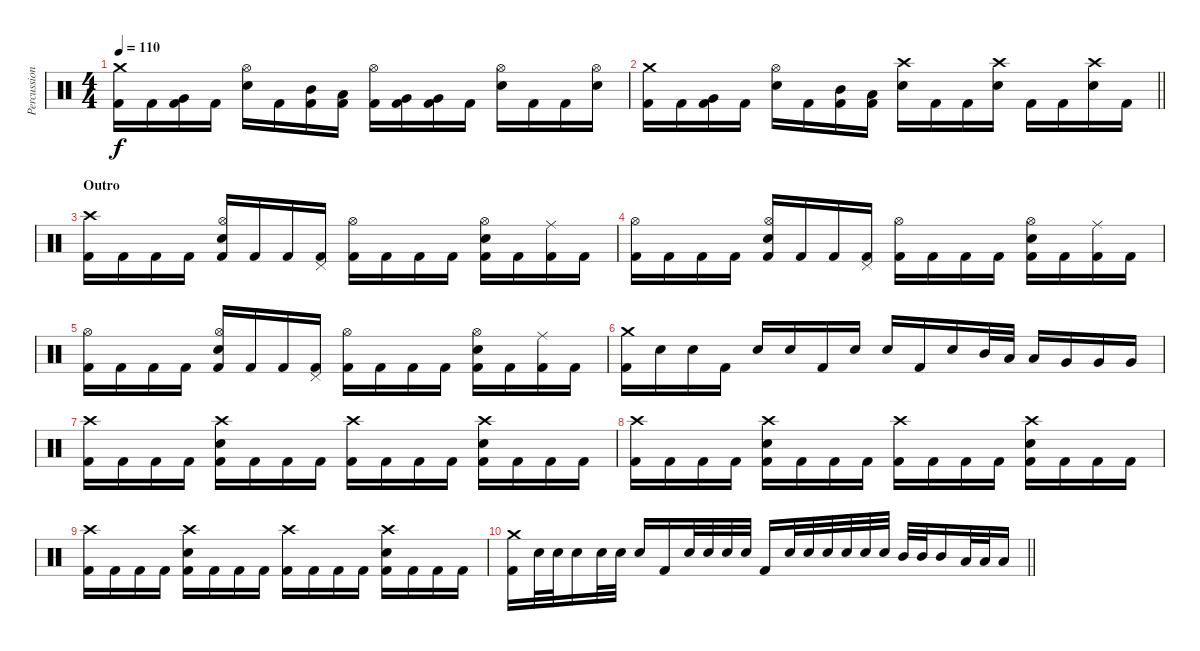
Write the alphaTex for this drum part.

\track ("Percussion" "Percussion") {instrument percussion}
\staff {score}
\articulation defaults
\ts (4 4)
\tempo 110
\clef neutral
\ks c
("Kick (hit) 2" "Crash medium (hit)").16{dy f} "Kick (hit) 2".16 ("Very Low Tom (hit)" "Kick (hit) 2").16 "Kick (hit) 2".16 ("Hi-Hat (open)" "Snare (hit) 2").16 "Kick (hit) 2".16 ("Mid Tom (hit)" "Kick (hit) 2").16 ("Low Tom (hit)" "Kick (hit) 2").16 ("Hi-Hat (open)" "Kick (hit) 2").16 ("Very Low Tom (hit)" "Kick (hit) 2").16 ("Very Low Tom (hit)" "Kick (hit) 2").16 "Kick (hit) 2".16 ("Hi-Hat (open)" "Snare (hit) 2").16 "Kick (hit) 2".16 "Kick (hit) 2".16 ("Hi-Hat (open)" "Snare (hit) 2").16 |
\barLineRight lightlight
("Kick (hit) 2" "Crash medium (hit)").16 "Kick (hit) 2".16 ("Very Low Tom (hit)" "Kick (hit) 2").16 "Kick (hit) 2".16 ("Hi-Hat (open)" "Snare (hit) 2").16 "Kick (hit) 2".16 ("Mid Tom (hit)" "Kick (hit) 2").16 ("Low Tom (hit)" "Kick (hit) 2").16 ("Snare (hit) 2" "Crash high (hit)").16 "Kick (hit) 2".16 "Kick (hit) 2".16 ("Snare (hit) 2" "Crash high (hit)").16 "Kick (hit) 2".16 "Kick (hit) 2".16 ("Snare (hit) 2" "Crash high (hit)").16 "Kick (hit) 2".16 |
\section ("" "Outro")
("Kick (hit) 2" "Crash high (hit)").16 "Kick (hit) 2".16 "Kick (hit) 2".16 "Kick (hit) 2".16 ("Hi-Hat (open)" "Snare (hit) 2" "Kick (hit) 2").16 "Kick (hit) 2".16 "Kick (hit) 2".16 ("Pedal Hi-Hat (hit)" "Kick (hit) 2").16 ("Hi-Hat (open)" "Kick (hit) 2").16 "Kick (hit) 2".16 "Kick (hit) 2".16 "Kick (hit) 2".16 ("Hi-Hat (open)" "Snare (hit) 2" "Kick (hit) 2").16 "Kick (hit) 2".16 ("Ride (middle)" "Kick (hit) 2").16 "Kick (hit) 2".16 |
("Hi-Hat (open)" "Kick (hit) 2").16 "Kick (hit) 2".16 "Kick (hit) 2".16 "Kick (hit) 2".16 ("Hi-Hat (open)" "Snare (hit) 2" "Kick (hit) 2").16 "Kick (hit) 2".16 "Kick (hit) 2".16 ("Pedal Hi-Hat (hit)" "Kick (hit) 2").16 ("Hi-Hat (open)" "Kick (hit) 2").16 "Kick (hit) 2".16 "Kick (hit) 2".16 "Kick (hit) 2".16 ("Hi-Hat (open)" "Snare (hit) 2" "Kick (hit) 2").16 "Kick (hit) 2".16 ("Ride (middle)" "Kick (hit) 2").16 "Kick (hit) 2".16 |
("Hi-Hat (open)" "Kick (hit) 2").16 "Kick (hit) 2".16 "Kick (hit) 2".16 "Kick (hit) 2".16 ("Hi-Hat (open)" "Snare (hit) 2" "Kick (hit) 2").16 "Kick (hit) 2".16 "Kick (hit) 2".16 ("Pedal Hi-Hat (hit)" "Kick (hit) 2").16 ("Hi-Hat (open)" "Kick (hit) 2").16 "Kick (hit) 2".16 "Kick (hit) 2".16 "Kick (hit) 2".16 ("Hi-Hat (open)" "Snare (hit) 2" "Kick (hit) 2").16 "Kick (hit) 2".16 ("Ride (middle)" "Kick (hit) 2").16 "Kick (hit) 2".16 |
("Kick (hit) 2" "Crash medium (hit)").16 "Snare (hit) 2".16 "Snare (hit) 2".16 "Kick (hit) 2".16 "Snare (hit) 2".16 "Snare (hit) 2".16 "Kick (hit) 2".16 "Snare (hit) 2".16 "Snare (hit) 2".16 "Kick (hit) 2".16 "Snare (hit) 2".16 "Mid Tom (hit)".32 "Low Tom (hit)".32 "Low Tom (hit)".16 "Very Low Tom (hit)".16 "Very Low Tom (hit)".16 "Very Low Tom (hit)".16 |
("Kick (hit) 2" "Crash high (hit)").16 "Kick (hit) 2".16 "Kick (hit) 2".16 "Kick (hit) 2".16 ("Snare (hit) 2" "Kick (hit) 2" "Crash high (hit)").16 "Kick (hit) 2".16 "Kick (hit) 2".16 "Kick (hit) 2".16 ("Kick (hit) 2" "Crash high (hit)").16 "Kick (hit) 2".16 "Kick (hit) 2".16 "Kick (hit) 2".16 ("Snare (hit) 2" "Kick (hit) 2" "Crash high (hit)").16 "Kick (hit) 2".16 "Kick (hit) 2".16 "Kick (hit) 2".16 |
("Kick (hit) 2" "Crash high (hit)").16 "Kick (hit) 2".16 "Kick (hit) 2".16 "Kick (hit) 2".16 ("Snare (hit) 2" "Kick (hit) 2" "Crash high (hit)").16 "Kick (hit) 2".16 "Kick (hit) 2".16 "Kick (hit) 2".16 ("Kick (hit) 2" "Crash high (hit)").16 "Kick (hit) 2".16 "Kick (hit) 2".16 "Kick (hit) 2".16 ("Snare (hit) 2" "Kick (hit) 2" "Crash high (hit)").16 "Kick (hit) 2".16 "Kick (hit) 2".16 "Kick (hit) 2".16 |
("Kick (hit) 2" "Crash high (hit)").16 "Kick (hit) 2".16 "Kick (hit) 2".16 "Kick (hit) 2".16 ("Snare (hit) 2" "Kick (hit) 2" "Crash high (hit)").16 "Kick (hit) 2".16 "Kick (hit) 2".16 "Kick (hit) 2".16 ("Kick (hit) 2" "Crash high (hit)").16 "Kick (hit) 2".16 "Kick (hit) 2".16 "Kick (hit) 2".16 ("Snare (hit) 2" "Kick (hit) 2" "Crash high (hit)").16 "Kick (hit) 2".16 "Kick (hit) 2".16 "Kick (hit) 2".16 |
\barLineRight lightlight
("Kick (hit) 2" "Crash medium (hit)").16 "Snare (hit) 2".32 "Snare (hit) 2".32 "Snare (hit) 2".16 "Snare (hit) 2".32 "Snare (hit) 2".32 "Snare (hit) 2".16 "Kick (hit) 2".16 "Snare (hit) 2".32 "Snare (hit) 2".32 "Snare (hit) 2".32 "Snare (hit) 2".32 "Kick (hit) 2".16 "Snare (hit) 2".32 "Snare (hit) 2".32 "Snare (hit) 2".32 "Snare (hit) 2".32 "Snare (hit) 2".32 "Snare (hit) 2".32 "Mid Tom (hit)".32 "Mid Tom (hit)".32 "Mid Tom (hit)".16 "Low Tom (hit)".32 "Low Tom (hit)".32 "Low Tom (hit)".16
